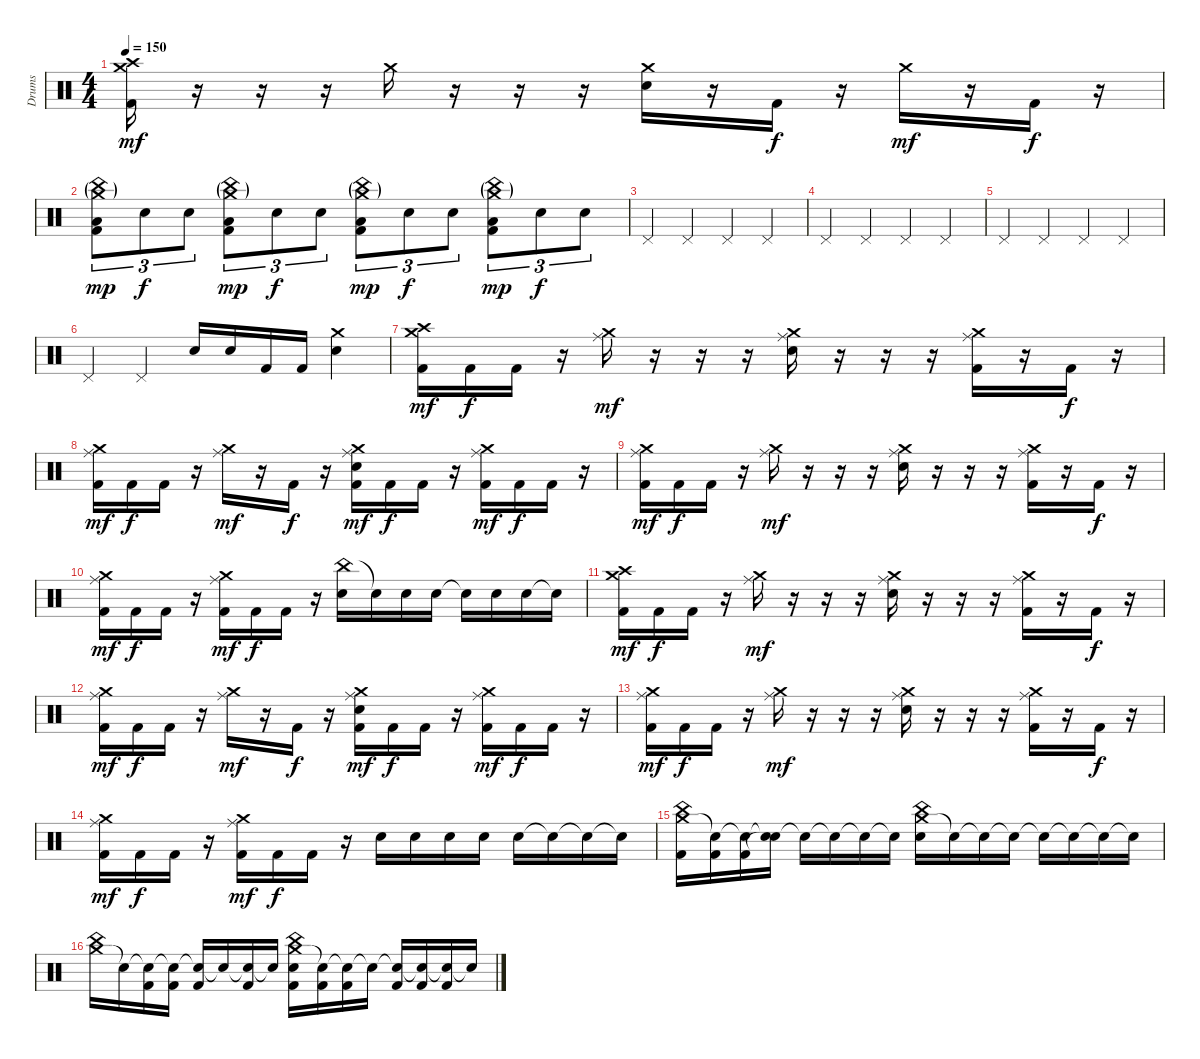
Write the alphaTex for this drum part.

\track ("Drums" "Drums") {instrument percussion}
\staff {score}
\articulation defaults
\ts (4 4)
\tempo 150
\clef neutral
\ks c
("Crash medium (hit)" "Crash high (hit)" "Kick (hit) 2").16{dy mf} r.16 r.16 r.16 "Crash medium (hit)".16 r.16 r.16 r.16 ("Crash medium (hit)" "Electric Snare (hit)").16 r.16 "Kick (hit) 2".16{dy f} r.16 "Crash medium (hit)".16{dy mf} r.16 "Kick (hit) 2".16{dy f} r.16 |
("China (hit)"{g} "Crash medium (hit)"{g} "Low Tom (hit)" "Kick (hit) 2").8{tu (3 2) dy mp} "Electric Snare (hit)".8{tu (3 2) dy f} "Electric Snare (hit)".8{tu (3 2)} ("China (hit)"{g} "Crash medium (hit)"{g} "Low Tom (hit)" "Kick (hit) 2").8{tu (3 2) dy mp} "Electric Snare (hit)".8{tu (3 2) dy f} "Electric Snare (hit)".8{tu (3 2)} ("China (hit)"{g} "Crash medium (hit)"{g} "Low Tom (hit)" "Kick (hit) 2").8{tu (3 2) dy mp} "Electric Snare (hit)".8{tu (3 2) dy f} "Electric Snare (hit)".8{tu (3 2)} ("China (hit)"{g} "Crash medium (hit)"{g} "Low Tom (hit)" "Kick (hit) 2").8{tu (3 2) dy mp} "Electric Snare (hit)".8{tu (3 2) dy f} "Electric Snare (hit)".8{tu (3 2)} |
"Pedal Hi-Hat (hit)".4 "Pedal Hi-Hat (hit)".4 "Pedal Hi-Hat (hit)".4 "Pedal Hi-Hat (hit)".4 |
"Pedal Hi-Hat (hit)".4 "Pedal Hi-Hat (hit)".4 "Pedal Hi-Hat (hit)".4 "Pedal Hi-Hat (hit)".4 |
"Pedal Hi-Hat (hit)".4 "Pedal Hi-Hat (hit)".4 "Pedal Hi-Hat (hit)".4 "Pedal Hi-Hat (hit)".4 |
"Pedal Hi-Hat (hit)".4 "Pedal Hi-Hat (hit)".4 "Electric Snare (hit)".16 "Electric Snare (hit)".16 "Kick (hit) 2".16 "Kick (hit) 2".16 ("Crash medium (hit)" "Electric Snare (hit)").4 |
("Crash high (hit)" "Crash medium (hit)" "Kick (hit) 2").16{dy mf} "Kick (hit) 2".16{dy f} "Kick (hit) 2".16 r.16 ("Crash medium (hit)" "Ride (middle)").16{dy mf} r.16 r.16 r.16 ("Crash medium (hit)" "Ride (middle)" "Electric Snare (hit)").16 r.16 r.16 r.16 ("Crash medium (hit)" "Ride (middle)" "Kick (hit) 2").16 r.16 "Kick (hit) 2".16{dy f} r.16 |
("Crash medium (hit)" "Ride (middle)" "Kick (hit) 2").16{dy mf} "Kick (hit) 2".16{dy f} "Kick (hit) 2".16 r.16 ("Crash medium (hit)" "Ride (middle)").16{dy mf} r.16 "Kick (hit) 2".16{dy f} r.16 ("Crash medium (hit)" "Ride (middle)" "Electric Snare (hit)" "Kick (hit) 2").16{dy mf} "Kick (hit) 2".16{dy f} "Kick (hit) 2".16 r.16 ("Crash medium (hit)" "Ride (middle)" "Kick (hit) 2").16{dy mf} "Kick (hit) 2".16{dy f} "Kick (hit) 2".16 r.16 |
("Crash medium (hit)" "Ride (middle)" "Kick (hit) 2").16{dy mf} "Kick (hit) 2".16{dy f} "Kick (hit) 2".16 r.16 ("Crash medium (hit)" "Ride (middle)").16{dy mf} r.16 r.16 r.16 ("Crash medium (hit)" "Ride (middle)" "Electric Snare (hit)").16 r.16 r.16 r.16 ("Crash medium (hit)" "Ride (middle)" "Kick (hit) 2").16 r.16 "Kick (hit) 2".16{dy f} r.16 |
("Crash medium (hit)" "Ride (middle)" "Kick (hit) 2").16{dy mf} "Kick (hit) 2".16{dy f} "Kick (hit) 2".16 r.16 ("Crash medium (hit)" "Ride (middle)" "Kick (hit) 2").16{dy mf} "Kick (hit) 2".16{dy f} "Kick (hit) 2".16 r.16 ("China (hit)" "Electric Snare (hit)").16 "Snare (hit)"{t}.16 "Electric Snare (hit)".16 "Electric Snare (hit)".16 "Snare (hit)"{t}.16 "Electric Snare (hit)".16 "Electric Snare (hit)".16 "Snare (hit)"{t}.16 |
("Crash high (hit)" "Crash medium (hit)" "Kick (hit) 2").16{dy mf} "Kick (hit) 2".16{dy f} "Kick (hit) 2".16 r.16 ("Crash medium (hit)" "Ride (middle)").16{dy mf} r.16 r.16 r.16 ("Crash medium (hit)" "Ride (middle)" "Electric Snare (hit)").16 r.16 r.16 r.16 ("Crash medium (hit)" "Ride (middle)" "Kick (hit) 2").16 r.16 "Kick (hit) 2".16{dy f} r.16 |
("Crash medium (hit)" "Ride (middle)" "Kick (hit) 2").16{dy mf} "Kick (hit) 2".16{dy f} "Kick (hit) 2".16 r.16 ("Crash medium (hit)" "Ride (middle)").16{dy mf} r.16 "Kick (hit) 2".16{dy f} r.16 ("Crash medium (hit)" "Ride (middle)" "Electric Snare (hit)" "Kick (hit) 2").16{dy mf} "Kick (hit) 2".16{dy f} "Kick (hit) 2".16 r.16 ("Crash medium (hit)" "Ride (middle)" "Kick (hit) 2").16{dy mf} "Kick (hit) 2".16{dy f} "Kick (hit) 2".16 r.16 |
("Crash medium (hit)" "Ride (middle)" "Kick (hit) 2").16{dy mf} "Kick (hit) 2".16{dy f} "Kick (hit) 2".16 r.16 ("Crash medium (hit)" "Ride (middle)").16{dy mf} r.16 r.16 r.16 ("Crash medium (hit)" "Ride (middle)" "Electric Snare (hit)").16 r.16 r.16 r.16 ("Crash medium (hit)" "Ride (middle)" "Kick (hit) 2").16 r.16 "Kick (hit) 2".16{dy f} r.16 |
("Crash medium (hit)" "Ride (middle)" "Kick (hit) 2").16{dy mf} "Kick (hit) 2".16{dy f} "Kick (hit) 2".16 r.16 ("Crash medium (hit)" "Ride (middle)" "Kick (hit) 2").16{dy mf} "Kick (hit) 2".16{dy f} "Kick (hit) 2".16 r.16 "Electric Snare (hit)".16 "Electric Snare (hit)".16 "Electric Snare (hit)".16 "Electric Snare (hit)".16 "Electric Snare (hit)".16 "Snare (hit)"{t}.16 "Snare (hit)"{t}.16 "Snare (hit)"{t}.16 |
("Crash medium (hit)" "China (hit)" "Kick (hit) 2").16 ("Snare (hit)"{t} "Kick (hit) 2").16 ("Snare (hit)"{t} "Kick (hit) 2").16 ("Snare (hit)"{t} "Snare (hit)"{t}).16 "Snare (hit)"{t}.16 "Snare (hit)"{t}.16 "Snare (hit)"{t}.16 "Snare (hit)"{t}.16 ("Crash medium (hit)" "China (hit)" "Electric Snare (hit)").16 "Snare (hit)"{t}.16 "Snare (hit)"{t}.16 "Snare (hit)"{t}.16 "Snare (hit)"{t}.16 "Snare (hit)"{t}.16 "Snare (hit)"{t}.16 "Snare (hit)"{t}.16 |
("Crash medium (hit)" "China (hit)").16 "Snare (hit)"{t}.16 ("Snare (hit)"{t} "Kick (hit) 2").16 ("Snare (hit)"{t} "Kick (hit) 2").16 ("Snare (hit)"{t} "Kick (hit) 2").16 "Snare (hit)"{t}.16 ("Snare (hit)"{t} "Kick (hit) 2").16 "Snare (hit)"{t}.16 ("Crash medium (hit)" "China (hit)" "Electric Snare (hit)" "Kick (hit) 2").16 ("Snare (hit)"{t} "Kick (hit) 2").16 ("Snare (hit)"{t} "Kick (hit) 2").16 "Snare (hit)"{t}.16 ("Snare (hit)"{t} "Kick (hit) 2").16 ("Snare (hit)"{t} "Kick (hit) 2").16 ("Snare (hit)"{t} "Kick (hit) 2").16 "Snare (hit)"{t}.16
